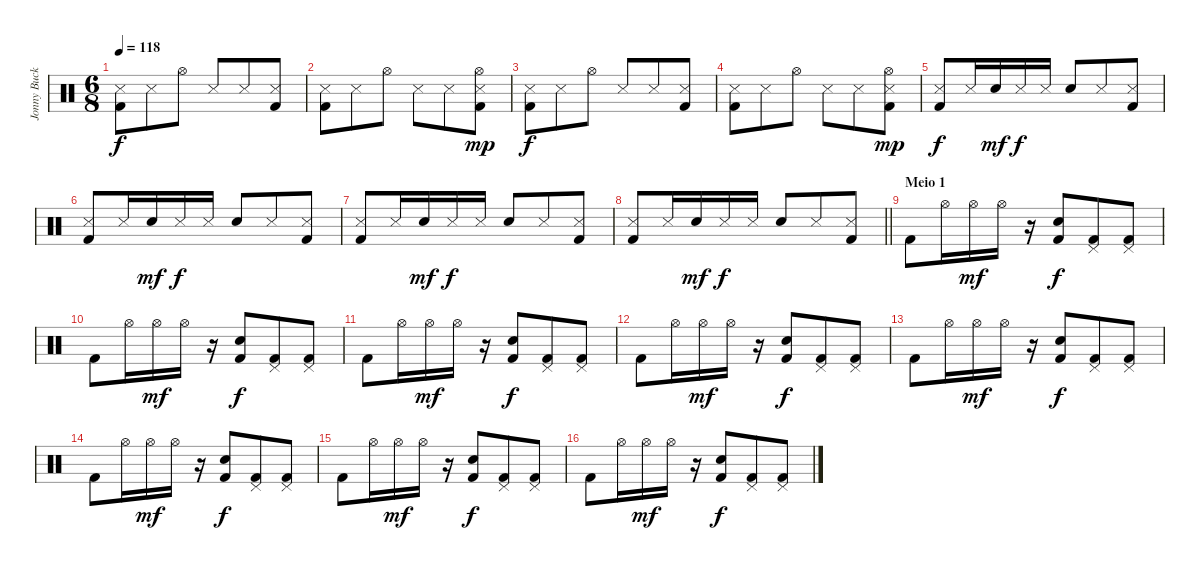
\track ("Jonny Buckland (batera)" "Jonny Buck") {instrument percussion}
\staff {score}
\articulation defaults
\ts (6 8)
\tempo 118
\clef neutral
\ks c
("Snare (side stick) 3" "Kick (hit) 2").8{dy f} "Snare (side stick) 3".8 "Hi-Hat (open)".8 "Snare (side stick) 3".8 "Snare (side stick) 3".8 ("Snare (side stick) 3" "Kick (hit) 2").8 |
("Snare (side stick) 3" "Kick (hit) 2").8 "Snare (side stick) 3".8 "Hi-Hat (open)".8 "Snare (side stick) 3".8 "Snare (side stick) 3".8 ("Snare (side stick) 3" "Hi-Hat (open)" "Kick (hit) 2").8{dy mp} |
("Snare (side stick) 3" "Kick (hit) 2").8{dy f} "Snare (side stick) 3".8 "Hi-Hat (open)".8 "Snare (side stick) 3".8 "Snare (side stick) 3".8 ("Snare (side stick) 3" "Kick (hit) 2").8 |
("Snare (side stick) 3" "Kick (hit) 2").8 "Snare (side stick) 3".8 "Hi-Hat (open)".8 "Snare (side stick) 3".8 "Snare (side stick) 3".8 ("Snare (side stick) 3" "Hi-Hat (open)" "Kick (hit) 2").8{dy mp} |
("Snare (side stick) 3" "Kick (hit) 2").8{dy f} "Snare (side stick) 3".16 "Snare (hit) 2".16{dy mf} "Snare (side stick) 3".16{dy f} "Snare (side stick) 3".16 "Electric Snare (hit)".8 "Snare (side stick) 3".8 ("Snare (side stick) 3" "Kick (hit) 2").8 |
("Snare (side stick) 3" "Kick (hit) 2").8 "Snare (side stick) 3".16 "Snare (hit) 2".16{dy mf} "Snare (side stick) 3".16{dy f} "Snare (side stick) 3".16 "Electric Snare (hit)".8 "Snare (side stick) 3".8 ("Snare (side stick) 3" "Kick (hit) 2").8 |
("Snare (side stick) 3" "Kick (hit) 2").8 "Snare (side stick) 3".16 "Snare (hit) 2".16{dy mf} "Snare (side stick) 3".16{dy f} "Snare (side stick) 3".16 "Electric Snare (hit)".8 "Snare (side stick) 3".8 ("Snare (side stick) 3" "Kick (hit) 2").8 |
\barLineRight lightlight
("Snare (side stick) 3" "Kick (hit) 2").8 "Snare (side stick) 3".16 "Snare (hit) 2".16{dy mf} "Snare (side stick) 3".16{dy f} "Snare (side stick) 3".16 "Electric Snare (hit)".8 "Snare (side stick) 3".8 ("Snare (side stick) 3" "Kick (hit) 2").8 |
\section ("" "Meio 1")
"Kick (hit) 2".8 "Hi-Hat (open)".16 "Hi-Hat (open)".16{dy mf} "Hi-Hat (open)".16 r.16 ("Electric Snare (hit)" "Kick (hit) 2").8{dy f} ("Pedal Hi-Hat (hit)" "Kick (hit) 2").8 ("Pedal Hi-Hat (hit)" "Kick (hit) 2").8 |
"Kick (hit) 2".8 "Hi-Hat (open)".16 "Hi-Hat (open)".16{dy mf} "Hi-Hat (open)".16 r.16 ("Electric Snare (hit)" "Kick (hit) 2").8{dy f} ("Pedal Hi-Hat (hit)" "Kick (hit) 2").8 ("Pedal Hi-Hat (hit)" "Kick (hit) 2").8 |
"Kick (hit) 2".8 "Hi-Hat (open)".16 "Hi-Hat (open)".16{dy mf} "Hi-Hat (open)".16 r.16 ("Electric Snare (hit)" "Kick (hit) 2").8{dy f} ("Pedal Hi-Hat (hit)" "Kick (hit) 2").8 ("Pedal Hi-Hat (hit)" "Kick (hit) 2").8 |
"Kick (hit) 2".8 "Hi-Hat (open)".16 "Hi-Hat (open)".16{dy mf} "Hi-Hat (open)".16 r.16 ("Electric Snare (hit)" "Kick (hit) 2").8{dy f} ("Pedal Hi-Hat (hit)" "Kick (hit) 2").8 ("Pedal Hi-Hat (hit)" "Kick (hit) 2").8 |
"Kick (hit) 2".8 "Hi-Hat (open)".16 "Hi-Hat (open)".16{dy mf} "Hi-Hat (open)".16 r.16 ("Electric Snare (hit)" "Kick (hit) 2").8{dy f} ("Pedal Hi-Hat (hit)" "Kick (hit) 2").8 ("Pedal Hi-Hat (hit)" "Kick (hit) 2").8 |
"Kick (hit) 2".8 "Hi-Hat (open)".16 "Hi-Hat (open)".16{dy mf} "Hi-Hat (open)".16 r.16 ("Electric Snare (hit)" "Kick (hit) 2").8{dy f} ("Pedal Hi-Hat (hit)" "Kick (hit) 2").8 ("Pedal Hi-Hat (hit)" "Kick (hit) 2").8 |
"Kick (hit) 2".8 "Hi-Hat (open)".16 "Hi-Hat (open)".16{dy mf} "Hi-Hat (open)".16 r.16 ("Electric Snare (hit)" "Kick (hit) 2").8{dy f} ("Pedal Hi-Hat (hit)" "Kick (hit) 2").8 ("Pedal Hi-Hat (hit)" "Kick (hit) 2").8 |
"Kick (hit) 2".8 "Hi-Hat (open)".16 "Hi-Hat (open)".16{dy mf} "Hi-Hat (open)".16 r.16 ("Electric Snare (hit)" "Kick (hit) 2").8{dy f} ("Pedal Hi-Hat (hit)" "Kick (hit) 2").8 ("Pedal Hi-Hat (hit)" "Kick (hit) 2").8
